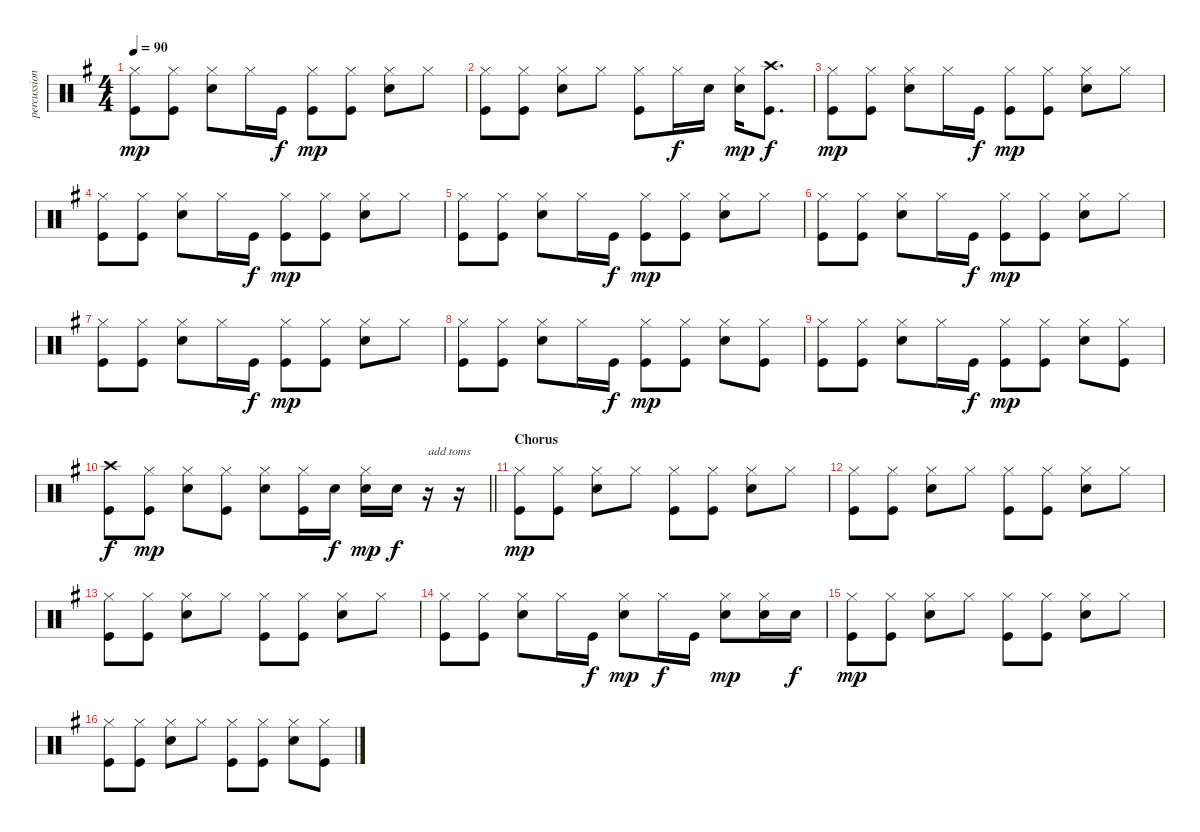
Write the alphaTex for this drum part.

\track ("percussion" "percussion") {instrument percussion}
\staff {score}
\articulation defaults
\ts (4 4)
\tempo 90
\clef neutral
\ks g
("Hi-Hat (closed)" "Kick (hit)").8{dy mp} ("Hi-Hat (closed)" "Kick (hit)").8 ("Electric Snare (hit)" "Hi-Hat (closed)").8 "Hi-Hat (closed)".16 "Kick (hit)".16{dy f} ("Hi-Hat (closed)" "Kick (hit)").8{dy mp} ("Hi-Hat (closed)" "Kick (hit)").8 ("Electric Snare (hit)" "Hi-Hat (closed)").8 "Hi-Hat (closed)".8 |
("Hi-Hat (closed)" "Kick (hit)").8 ("Hi-Hat (closed)" "Kick (hit)").8 ("Electric Snare (hit)" "Hi-Hat (closed)").8 "Hi-Hat (closed)".8 ("Hi-Hat (closed)" "Kick (hit)").8 "Hi-Hat (closed)".16{dy f} "Electric Snare (hit)".16 ("Electric Snare (hit)" "Hi-Hat (closed)").16{dy mp} ("Crash high (hit)" "Kick (hit)").8{d dy f} |
("Hi-Hat (closed)" "Kick (hit)").8{dy mp} ("Hi-Hat (closed)" "Kick (hit)").8 ("Electric Snare (hit)" "Hi-Hat (closed)").8 "Hi-Hat (closed)".16 "Kick (hit)".16{dy f} ("Hi-Hat (closed)" "Kick (hit)").8{dy mp} ("Hi-Hat (closed)" "Kick (hit)").8 ("Electric Snare (hit)" "Hi-Hat (closed)").8 "Hi-Hat (closed)".8 |
("Hi-Hat (closed)" "Kick (hit)").8 ("Hi-Hat (closed)" "Kick (hit)").8 ("Electric Snare (hit)" "Hi-Hat (closed)").8 "Hi-Hat (closed)".16 "Kick (hit)".16{dy f} ("Hi-Hat (closed)" "Kick (hit)").8{dy mp} ("Hi-Hat (closed)" "Kick (hit)").8 ("Electric Snare (hit)" "Hi-Hat (closed)").8 "Hi-Hat (closed)".8 |
("Hi-Hat (closed)" "Kick (hit)").8 ("Hi-Hat (closed)" "Kick (hit)").8 ("Electric Snare (hit)" "Hi-Hat (closed)").8 "Hi-Hat (closed)".16 "Kick (hit)".16{dy f} ("Hi-Hat (closed)" "Kick (hit)").8{dy mp} ("Hi-Hat (closed)" "Kick (hit)").8 ("Electric Snare (hit)" "Hi-Hat (closed)").8 "Hi-Hat (closed)".8 |
("Hi-Hat (closed)" "Kick (hit)").8 ("Hi-Hat (closed)" "Kick (hit)").8 ("Electric Snare (hit)" "Hi-Hat (closed)").8 "Hi-Hat (closed)".16 "Kick (hit)".16{dy f} ("Hi-Hat (closed)" "Kick (hit)").8{dy mp} ("Hi-Hat (closed)" "Kick (hit)").8 ("Electric Snare (hit)" "Hi-Hat (closed)").8 "Hi-Hat (closed)".8 |
("Hi-Hat (closed)" "Kick (hit)").8 ("Hi-Hat (closed)" "Kick (hit)").8 ("Electric Snare (hit)" "Hi-Hat (closed)").8 "Hi-Hat (closed)".16 "Kick (hit)".16{dy f} ("Hi-Hat (closed)" "Kick (hit)").8{dy mp} ("Hi-Hat (closed)" "Kick (hit)").8 ("Electric Snare (hit)" "Hi-Hat (closed)").8 "Hi-Hat (closed)".8 |
("Hi-Hat (closed)" "Kick (hit)").8 ("Hi-Hat (closed)" "Kick (hit)").8 ("Electric Snare (hit)" "Hi-Hat (closed)").8 "Hi-Hat (closed)".16 "Kick (hit)".16{dy f} ("Hi-Hat (closed)" "Kick (hit)").8{dy mp} ("Hi-Hat (closed)" "Kick (hit)").8 ("Electric Snare (hit)" "Hi-Hat (closed)").8 ("Hi-Hat (closed)" "Kick (hit)").8 |
("Hi-Hat (closed)" "Kick (hit)").8 ("Hi-Hat (closed)" "Kick (hit)").8 ("Electric Snare (hit)" "Hi-Hat (closed)").8 "Hi-Hat (closed)".16 "Kick (hit)".16{dy f} ("Hi-Hat (closed)" "Kick (hit)").8{dy mp} ("Hi-Hat (closed)" "Kick (hit)").8 ("Electric Snare (hit)" "Hi-Hat (closed)").8 ("Hi-Hat (closed)" "Kick (hit)").8 |
\barLineRight lightlight
("Crash high (hit)" "Kick (hit)").8{dy f} ("Hi-Hat (closed)" "Kick (hit)").8{dy mp} ("Electric Snare (hit)" "Hi-Hat (closed)").8 ("Hi-Hat (closed)" "Kick (hit)").8 ("Electric Snare (hit)" "Hi-Hat (closed)").8 ("Hi-Hat (closed)" "Kick (hit)").16 "Electric Snare (hit)".16{dy f} ("Electric Snare (hit)" "Hi-Hat (closed)").16{dy mp} "Electric Snare (hit)".16{dy f} r.16{txt "add toms"} r.16 |
\section ("" "Chorus")
("Hi-Hat (closed)" "Kick (hit)").8{dy mp} ("Hi-Hat (closed)" "Kick (hit)").8 ("Electric Snare (hit)" "Hi-Hat (closed)").8 "Hi-Hat (closed)".8 ("Hi-Hat (closed)" "Kick (hit)").8 ("Hi-Hat (closed)" "Kick (hit)").8 ("Electric Snare (hit)" "Hi-Hat (closed)").8 "Hi-Hat (closed)".8 |
("Hi-Hat (closed)" "Kick (hit)").8 ("Hi-Hat (closed)" "Kick (hit)").8 ("Electric Snare (hit)" "Hi-Hat (closed)").8 "Hi-Hat (closed)".8 ("Hi-Hat (closed)" "Kick (hit)").8 ("Hi-Hat (closed)" "Kick (hit)").8 ("Electric Snare (hit)" "Hi-Hat (closed)").8 "Hi-Hat (closed)".8 |
("Hi-Hat (closed)" "Kick (hit)").8 ("Hi-Hat (closed)" "Kick (hit)").8 ("Electric Snare (hit)" "Hi-Hat (closed)").8 "Hi-Hat (closed)".8 ("Hi-Hat (closed)" "Kick (hit)").8 ("Hi-Hat (closed)" "Kick (hit)").8 ("Electric Snare (hit)" "Hi-Hat (closed)").8 "Hi-Hat (closed)".8 |
("Hi-Hat (closed)" "Kick (hit)").8 ("Hi-Hat (closed)" "Kick (hit)").8 ("Electric Snare (hit)" "Hi-Hat (closed)").8 "Hi-Hat (closed)".16 "Kick (hit)".16{dy f} ("Electric Snare (hit)" "Hi-Hat (closed)").8{dy mp} "Hi-Hat (closed)".16{dy f} "Kick (hit)".16 ("Electric Snare (hit)" "Hi-Hat (closed)").8{dy mp} ("Electric Snare (hit)" "Hi-Hat (closed)").16 "Electric Snare (hit)".16{dy f} |
("Hi-Hat (closed)" "Kick (hit)").8{dy mp} ("Hi-Hat (closed)" "Kick (hit)").8 ("Electric Snare (hit)" "Hi-Hat (closed)").8 "Hi-Hat (closed)".8 ("Hi-Hat (closed)" "Kick (hit)").8 ("Hi-Hat (closed)" "Kick (hit)").8 ("Electric Snare (hit)" "Hi-Hat (closed)").8 "Hi-Hat (closed)".8 |
("Hi-Hat (closed)" "Kick (hit)").8 ("Hi-Hat (closed)" "Kick (hit)").8 ("Electric Snare (hit)" "Hi-Hat (closed)").8 "Hi-Hat (closed)".8 ("Hi-Hat (closed)" "Kick (hit)").8 ("Hi-Hat (closed)" "Kick (hit)").8 ("Electric Snare (hit)" "Hi-Hat (closed)").8 ("Hi-Hat (closed)" "Kick (hit)").8
